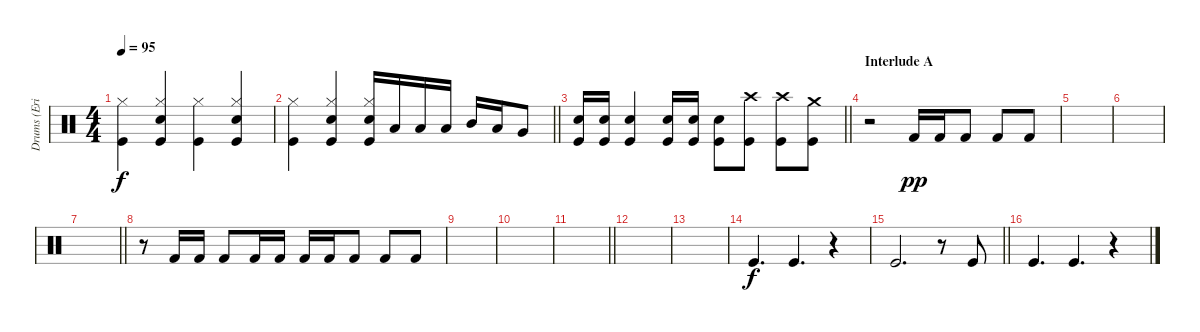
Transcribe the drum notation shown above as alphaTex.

\track ("Drums (Eric Singer)" "Drums (Eri") {instrument percussion}
\staff {score}
\articulation defaults
\ts (4 4)
\tempo 95
\clef neutral
\ks c
("Kick (hit)" "Hi-Hat (closed)").4{dy f} ("Snare (hit) 2" "Kick (hit)" "Hi-Hat (closed)").4 ("Kick (hit)" "Hi-Hat (closed)").4 ("Snare (hit) 2" "Kick (hit)" "Hi-Hat (closed)").4 |
\barLineRight lightlight
("Kick (hit)" "Hi-Hat (closed)").4 ("Snare (hit) 2" "Kick (hit)" "Hi-Hat (closed)").4 ("Snare (hit) 2" "Kick (hit)" "Hi-Hat (closed)").16 "Low Tom (hit)".16 "Low Tom (hit)".16 "Low Tom (hit)".16 "Mid Tom (hit)".16 "Low Tom (hit)".16 "Very Low Tom (hit)".8 |
\barLineRight lightlight
("Snare (hit) 2" "Kick (hit)").16 ("Snare (hit) 2" "Kick (hit)").16 ("Snare (hit) 2" "Kick (hit)").4 ("Snare (hit) 2" "Kick (hit)").16 ("Snare (hit) 2" "Kick (hit)").16 ("Snare (hit) 2" "Kick (hit)").8 ("Crash high (hit)" "Kick (hit)").8 ("Crash high (hit)" "Kick (hit)").8 ("Crash medium (hit)" "Kick (hit)").8 |
\section ("" "Interlude A")
r.2 "Kick (hit) 2".16{dy pp} "Kick (hit) 2".16 "Kick (hit) 2".8 "Kick (hit) 2".8 "Kick (hit) 2".8 |
|
|
\barLineRight lightlight
|
r.8 "Kick (hit) 2".16 "Kick (hit) 2".16 "Kick (hit) 2".8 "Kick (hit) 2".16 "Kick (hit) 2".16 "Kick (hit) 2".16 "Kick (hit) 2".16 "Kick (hit) 2".8 "Kick (hit) 2".8 "Kick (hit) 2".8 |
|
|
\barLineRight lightlight
|
|
|
"Kick (hit)".4{d dy f} "Kick (hit)".4{d} r.4 |
\barLineRight lightlight "Kick (hit)".2{d}
r.8 "Kick (hit)".8 |
"Kick (hit)".4{d} "Kick (hit)".4{d} r.4
